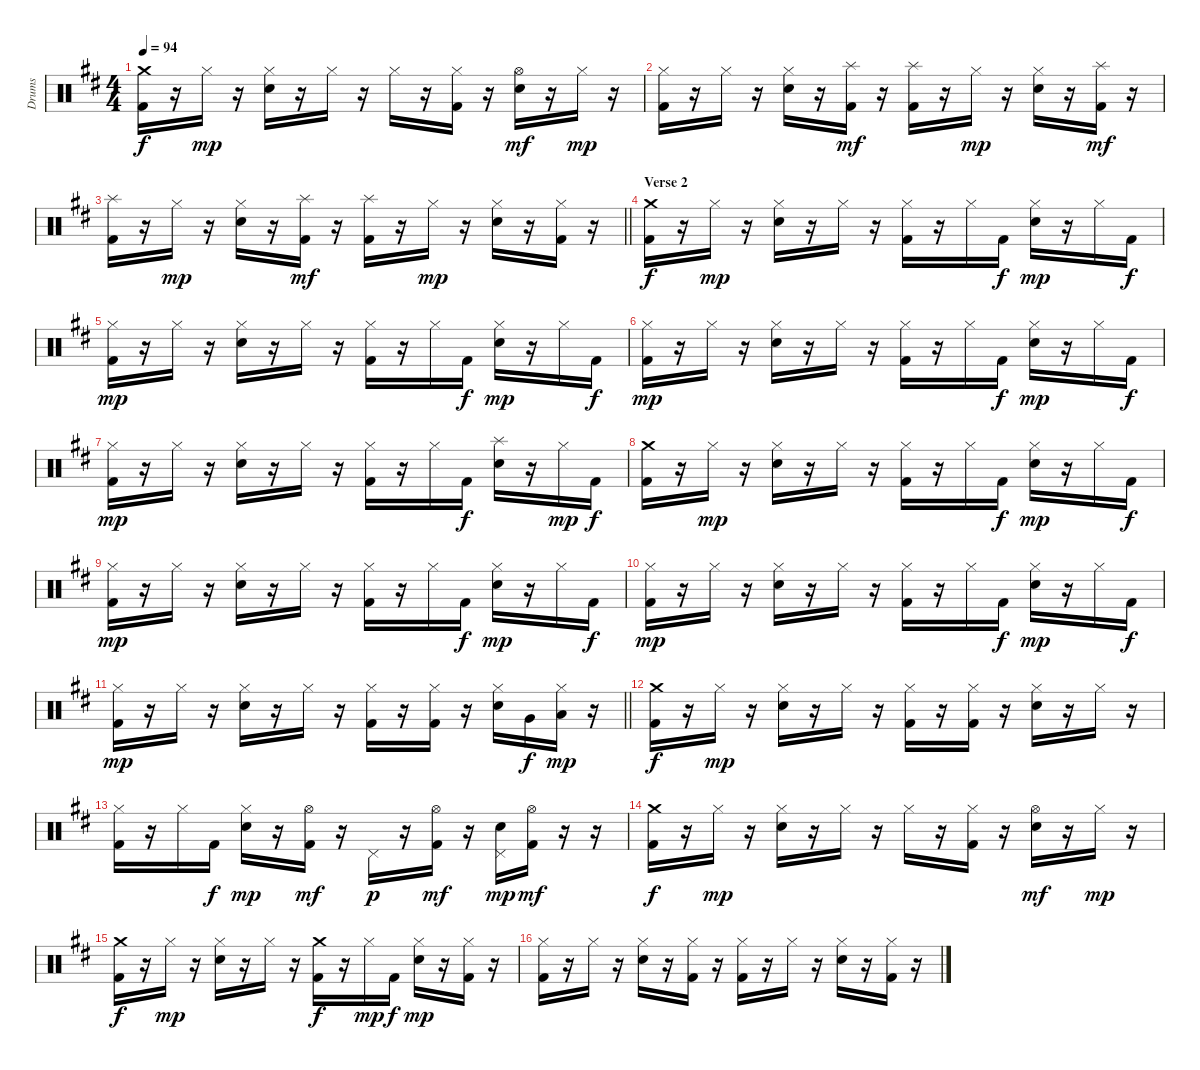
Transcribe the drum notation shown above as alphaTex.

\track ("Drums" "Drums") {instrument percussion}
\staff {score}
\articulation defaults
\ts (4 4)
\tempo 94
\clef neutral
\ks d
("Crash medium (hit)" "Kick (hit) 2").16{dy f} r.16 "Hi-Hat (closed)".16{dy mp} r.16 ("Hi-Hat (closed)" "Snare (hit) 2").16 r.16 "Hi-Hat (closed)".16 r.16 "Hi-Hat (closed)".16 r.16 ("Hi-Hat (closed)" "Kick (hit) 2").16 r.16 ("Hi-Hat (open)" "Snare (hit) 2").16{dy mf} r.16 "Hi-Hat (closed)".16{dy mp} r.16 |
("Hi-Hat (closed)" "Kick (hit) 2").16 r.16 "Hi-Hat (closed)".16 r.16 ("Hi-Hat (closed)" "Snare (hit) 2").16 r.16 ("Splash (hit)" "Kick (hit) 2").16{dy mf} r.16 ("Splash (hit)" "Kick (hit) 2").16 r.16 "Hi-Hat (closed)".16{dy mp} r.16 ("Hi-Hat (closed)" "Snare (hit) 2").16 r.16 ("Splash (hit)" "Kick (hit) 2").16{dy mf} r.16 |
\barLineRight lightlight
("Splash (hit)" "Kick (hit) 2").16 r.16 "Hi-Hat (closed)".16{dy mp} r.16 ("Hi-Hat (closed)" "Snare (hit) 2").16 r.16 ("Splash (hit)" "Kick (hit) 2").16{dy mf} r.16 ("Splash (hit)" "Kick (hit) 2").16 r.16 "Hi-Hat (closed)".16{dy mp} r.16 ("Hi-Hat (closed)" "Snare (hit) 2").16 r.16 ("Hi-Hat (closed)" "Kick (hit) 2").16 r.16 |
\section ("" "Verse 2")
("Crash medium (hit)" "Kick (hit) 2").16{dy f} r.16 "Hi-Hat (closed)".16{dy mp} r.16 ("Hi-Hat (closed)" "Snare (hit) 2").16 r.16 "Hi-Hat (closed)".16 r.16 ("Hi-Hat (closed)" "Kick (hit) 2").16 r.16 "Hi-Hat (closed)".16 "Kick (hit) 2".16{dy f} ("Hi-Hat (closed)" "Snare (hit) 2").16{dy mp} r.16 "Hi-Hat (closed)".16 "Kick (hit) 2".16{dy f} |
("Hi-Hat (closed)" "Kick (hit) 2").16{dy mp} r.16 "Hi-Hat (closed)".16 r.16 ("Hi-Hat (closed)" "Snare (hit) 2").16 r.16 "Hi-Hat (closed)".16 r.16 ("Hi-Hat (closed)" "Kick (hit) 2").16 r.16 "Hi-Hat (closed)".16 "Kick (hit) 2".16{dy f} ("Hi-Hat (closed)" "Snare (hit) 2").16{dy mp} r.16 "Hi-Hat (closed)".16 "Kick (hit) 2".16{dy f} |
("Hi-Hat (closed)" "Kick (hit) 2").16{dy mp} r.16 "Hi-Hat (closed)".16 r.16 ("Hi-Hat (closed)" "Snare (hit) 2").16 r.16 "Hi-Hat (closed)".16 r.16 ("Hi-Hat (closed)" "Kick (hit) 2").16 r.16 "Hi-Hat (closed)".16 "Kick (hit) 2".16{dy f} ("Hi-Hat (closed)" "Snare (hit) 2").16{dy mp} r.16 "Hi-Hat (closed)".16 "Kick (hit) 2".16{dy f} |
("Hi-Hat (closed)" "Kick (hit) 2").16{dy mp} r.16 "Hi-Hat (closed)".16 r.16 ("Hi-Hat (closed)" "Snare (hit) 2").16 r.16 "Hi-Hat (closed)".16 r.16 ("Hi-Hat (closed)" "Kick (hit) 2").16 r.16 "Hi-Hat (closed)".16 "Kick (hit) 2".16{dy f} ("Splash (hit)" "Snare (hit) 2").16 r.16 "Hi-Hat (closed)".16{dy mp} "Kick (hit) 2".16{dy f} |
("Crash medium (hit)" "Kick (hit) 2").16 r.16 "Hi-Hat (closed)".16{dy mp} r.16 ("Hi-Hat (closed)" "Snare (hit) 2").16 r.16 "Hi-Hat (closed)".16 r.16 ("Hi-Hat (closed)" "Kick (hit) 2").16 r.16 "Hi-Hat (closed)".16 "Kick (hit) 2".16{dy f} ("Hi-Hat (closed)" "Snare (hit) 2").16{dy mp} r.16 "Hi-Hat (closed)".16 "Kick (hit) 2".16{dy f} |
("Hi-Hat (closed)" "Kick (hit) 2").16{dy mp} r.16 "Hi-Hat (closed)".16 r.16 ("Hi-Hat (closed)" "Snare (hit) 2").16 r.16 "Hi-Hat (closed)".16 r.16 ("Hi-Hat (closed)" "Kick (hit) 2").16 r.16 "Hi-Hat (closed)".16 "Kick (hit) 2".16{dy f} ("Hi-Hat (closed)" "Snare (hit) 2").16{dy mp} r.16 "Hi-Hat (closed)".16 "Kick (hit) 2".16{dy f} |
("Hi-Hat (closed)" "Kick (hit) 2").16{dy mp} r.16 "Hi-Hat (closed)".16 r.16 ("Hi-Hat (closed)" "Snare (hit) 2").16 r.16 "Hi-Hat (closed)".16 r.16 ("Hi-Hat (closed)" "Kick (hit) 2").16 r.16 "Hi-Hat (closed)".16 "Kick (hit) 2".16{dy f} ("Hi-Hat (closed)" "Snare (hit) 2").16{dy mp} r.16 "Hi-Hat (closed)".16 "Kick (hit) 2".16{dy f} |
\barLineRight lightlight
("Hi-Hat (closed)" "Kick (hit) 2").16{dy mp} r.16 "Hi-Hat (closed)".16 r.16 ("Hi-Hat (closed)" "Snare (hit) 2").16 r.16 "Hi-Hat (closed)".16 r.16 ("Hi-Hat (closed)" "Kick (hit) 2").16 r.16 ("Hi-Hat (closed)" "Kick (hit) 2").16 r.16 ("Hi-Hat (closed)" "Snare (hit) 2").16 "Very Low Tom (hit)".16{dy f} ("Hi-Hat (closed)" "Low Floor Tom (hit)").16{dy mp} r.16 |
("Crash medium (hit)" "Kick (hit) 2").16{dy f} r.16 "Hi-Hat (closed)".16{dy mp} r.16 ("Hi-Hat (closed)" "Snare (hit) 2").16 r.16 "Hi-Hat (closed)".16 r.16 ("Hi-Hat (closed)" "Kick (hit) 2").16 r.16 ("Hi-Hat (closed)" "Kick (hit) 2").16 r.16 ("Hi-Hat (closed)" "Snare (hit) 2").16 r.16 "Hi-Hat (closed)".16 r.16 |
("Hi-Hat (closed)" "Kick (hit) 2").16 r.16 "Hi-Hat (closed)".16 "Kick (hit) 2".16{dy f} ("Hi-Hat (closed)" "Snare (hit) 2").16{dy mp} r.16 ("Hi-Hat (open)" "Kick (hit) 2").16{dy mf} r.16 "Pedal Hi-Hat (hit)".16{dy p} r.16 ("Hi-Hat (open)" "Kick (hit) 2").16{dy mf} r.16 ("Pedal Hi-Hat (hit)" "Snare (hit) 2").16{dy mp} ("Hi-Hat (open)" "Kick (hit) 2").16{dy mf} r.16 r.16 |
("Crash medium (hit)" "Kick (hit) 2").16{dy f} r.16 "Hi-Hat (closed)".16{dy mp} r.16 ("Hi-Hat (closed)" "Snare (hit) 2").16 r.16 "Hi-Hat (closed)".16 r.16 "Hi-Hat (closed)".16 r.16 ("Hi-Hat (closed)" "Kick (hit) 2").16 r.16 ("Hi-Hat (open)" "Snare (hit) 2").16{dy mf} r.16 "Hi-Hat (closed)".16{dy mp} r.16 |
("Crash medium (hit)" "Kick (hit) 2").16{dy f} r.16 "Hi-Hat (closed)".16{dy mp} r.16 ("Hi-Hat (closed)" "Snare (hit) 2").16 r.16 "Hi-Hat (closed)".16 r.16 ("Crash medium (hit)" "Kick (hit) 2").16{dy f} r.16 "Hi-Hat (closed)".16{dy mp} "Kick (hit) 2".16{dy f} ("Hi-Hat (closed)" "Snare (hit) 2").16{dy mp} r.16 ("Hi-Hat (closed)" "Kick (hit) 2").16 r.16 |
("Hi-Hat (closed)" "Kick (hit) 2").16 r.16 "Hi-Hat (closed)".16 r.16 ("Hi-Hat (closed)" "Snare (hit) 2").16 r.16 ("Hi-Hat (closed)" "Kick (hit) 2").16 r.16 ("Hi-Hat (closed)" "Kick (hit) 2").16 r.16 "Hi-Hat (closed)".16 r.16 ("Hi-Hat (closed)" "Snare (hit) 2").16 r.16 ("Hi-Hat (closed)" "Kick (hit) 2").16 r.16
